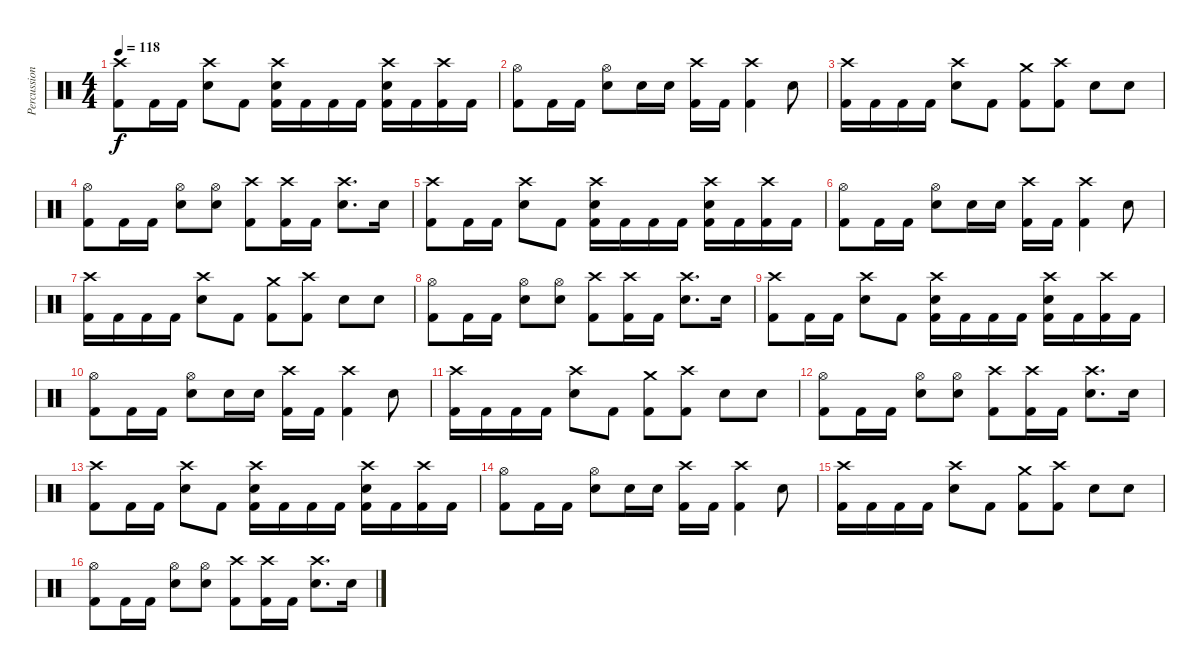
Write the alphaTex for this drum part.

\track ("Percussions" "Percussion") {instrument percussion}
\staff {score}
\articulation defaults
\ts (4 4)
\tempo 118
\clef neutral
\ks c
("Crash high (hit)" "Kick (hit) 2").8{dy f} "Kick (hit) 2".16 "Kick (hit) 2".16 ("Crash high (hit)" "Snare (hit) 2").8 "Kick (hit) 2".8 ("Crash high (hit)" "Snare (hit) 2" "Kick (hit) 2").16 "Kick (hit) 2".16 "Kick (hit) 2".16 "Kick (hit) 2".16 ("Crash high (hit)" "Snare (hit) 2" "Kick (hit) 2").16 "Kick (hit) 2".16 ("Crash high (hit)" "Kick (hit) 2").16 "Kick (hit) 2".16 |
("Hi-Hat (open)" "Kick (hit) 2").8 "Kick (hit) 2".16 "Kick (hit) 2".16 ("Hi-Hat (open)" "Snare (hit) 2").8 "Snare (hit) 2".16 "Snare (hit) 2".16 ("Crash high (hit)" "Kick (hit) 2").16 "Kick (hit) 2".16 ("Crash high (hit)" "Kick (hit) 2").4 "Snare (hit) 2".8 |
("Crash high (hit)" "Kick (hit) 2").16 "Kick (hit) 2".16 "Kick (hit) 2".16 "Kick (hit) 2".16 ("Crash high (hit)" "Snare (hit) 2").8 "Kick (hit) 2".8 ("Crash medium (hit)" "Kick (hit) 2").8 ("Crash high (hit)" "Kick (hit) 2").8 "Snare (hit) 2".8 "Snare (hit) 2".8 |
("Hi-Hat (open)" "Kick (hit) 2").8 "Kick (hit) 2".16 "Kick (hit) 2".16 ("Hi-Hat (open)" "Snare (hit) 2").8 ("Hi-Hat (open)" "Snare (hit) 2").8 ("Crash high (hit)" "Kick (hit) 2").8 ("Crash high (hit)" "Kick (hit) 2").16 "Kick (hit) 2".16 ("Crash high (hit)" "Snare (hit) 2").8{d} "Snare (hit) 2".16 |
("Crash high (hit)" "Kick (hit) 2").8 "Kick (hit) 2".16 "Kick (hit) 2".16 ("Crash high (hit)" "Snare (hit) 2").8 "Kick (hit) 2".8 ("Crash high (hit)" "Snare (hit) 2" "Kick (hit) 2").16 "Kick (hit) 2".16 "Kick (hit) 2".16 "Kick (hit) 2".16 ("Crash high (hit)" "Snare (hit) 2" "Kick (hit) 2").16 "Kick (hit) 2".16 ("Crash high (hit)" "Kick (hit) 2").16 "Kick (hit) 2".16 |
("Hi-Hat (open)" "Kick (hit) 2").8 "Kick (hit) 2".16 "Kick (hit) 2".16 ("Hi-Hat (open)" "Snare (hit) 2").8 "Snare (hit) 2".16 "Snare (hit) 2".16 ("Crash high (hit)" "Kick (hit) 2").16 "Kick (hit) 2".16 ("Crash high (hit)" "Kick (hit) 2").4 "Snare (hit) 2".8 |
("Crash high (hit)" "Kick (hit) 2").16 "Kick (hit) 2".16 "Kick (hit) 2".16 "Kick (hit) 2".16 ("Crash high (hit)" "Snare (hit) 2").8 "Kick (hit) 2".8 ("Crash medium (hit)" "Kick (hit) 2").8 ("Crash high (hit)" "Kick (hit) 2").8 "Snare (hit) 2".8 "Snare (hit) 2".8 |
("Hi-Hat (open)" "Kick (hit) 2").8 "Kick (hit) 2".16 "Kick (hit) 2".16 ("Hi-Hat (open)" "Snare (hit) 2").8 ("Hi-Hat (open)" "Snare (hit) 2").8 ("Crash high (hit)" "Kick (hit) 2").8 ("Crash high (hit)" "Kick (hit) 2").16 "Kick (hit) 2".16 ("Crash high (hit)" "Snare (hit) 2").8{d} "Snare (hit) 2".16 |
("Crash high (hit)" "Kick (hit) 2").8 "Kick (hit) 2".16 "Kick (hit) 2".16 ("Crash high (hit)" "Snare (hit) 2").8 "Kick (hit) 2".8 ("Crash high (hit)" "Snare (hit) 2" "Kick (hit) 2").16 "Kick (hit) 2".16 "Kick (hit) 2".16 "Kick (hit) 2".16 ("Crash high (hit)" "Snare (hit) 2" "Kick (hit) 2").16 "Kick (hit) 2".16 ("Crash high (hit)" "Kick (hit) 2").16 "Kick (hit) 2".16 |
("Hi-Hat (open)" "Kick (hit) 2").8 "Kick (hit) 2".16 "Kick (hit) 2".16 ("Hi-Hat (open)" "Snare (hit) 2").8 "Snare (hit) 2".16 "Snare (hit) 2".16 ("Crash high (hit)" "Kick (hit) 2").16 "Kick (hit) 2".16 ("Crash high (hit)" "Kick (hit) 2").4 "Snare (hit) 2".8 |
("Crash high (hit)" "Kick (hit) 2").16 "Kick (hit) 2".16 "Kick (hit) 2".16 "Kick (hit) 2".16 ("Crash high (hit)" "Snare (hit) 2").8 "Kick (hit) 2".8 ("Crash medium (hit)" "Kick (hit) 2").8 ("Crash high (hit)" "Kick (hit) 2").8 "Snare (hit) 2".8 "Snare (hit) 2".8 |
("Hi-Hat (open)" "Kick (hit) 2").8 "Kick (hit) 2".16 "Kick (hit) 2".16 ("Hi-Hat (open)" "Snare (hit) 2").8 ("Hi-Hat (open)" "Snare (hit) 2").8 ("Crash high (hit)" "Kick (hit) 2").8 ("Crash high (hit)" "Kick (hit) 2").16 "Kick (hit) 2".16 ("Crash high (hit)" "Snare (hit) 2").8{d} "Snare (hit) 2".16 |
("Crash high (hit)" "Kick (hit) 2").8 "Kick (hit) 2".16 "Kick (hit) 2".16 ("Crash high (hit)" "Snare (hit) 2").8 "Kick (hit) 2".8 ("Crash high (hit)" "Snare (hit) 2" "Kick (hit) 2").16 "Kick (hit) 2".16 "Kick (hit) 2".16 "Kick (hit) 2".16 ("Crash high (hit)" "Snare (hit) 2" "Kick (hit) 2").16 "Kick (hit) 2".16 ("Crash high (hit)" "Kick (hit) 2").16 "Kick (hit) 2".16 |
("Hi-Hat (open)" "Kick (hit) 2").8 "Kick (hit) 2".16 "Kick (hit) 2".16 ("Hi-Hat (open)" "Snare (hit) 2").8 "Snare (hit) 2".16 "Snare (hit) 2".16 ("Crash high (hit)" "Kick (hit) 2").16 "Kick (hit) 2".16 ("Crash high (hit)" "Kick (hit) 2").4 "Snare (hit) 2".8 |
("Crash high (hit)" "Kick (hit) 2").16 "Kick (hit) 2".16 "Kick (hit) 2".16 "Kick (hit) 2".16 ("Crash high (hit)" "Snare (hit) 2").8 "Kick (hit) 2".8 ("Crash medium (hit)" "Kick (hit) 2").8 ("Crash high (hit)" "Kick (hit) 2").8 "Snare (hit) 2".8 "Snare (hit) 2".8 |
("Hi-Hat (open)" "Kick (hit) 2").8 "Kick (hit) 2".16 "Kick (hit) 2".16 ("Hi-Hat (open)" "Snare (hit) 2").8 ("Hi-Hat (open)" "Snare (hit) 2").8 ("Crash high (hit)" "Kick (hit) 2").8 ("Crash high (hit)" "Kick (hit) 2").16 "Kick (hit) 2".16 ("Crash high (hit)" "Snare (hit) 2").8{d} "Snare (hit) 2".16
